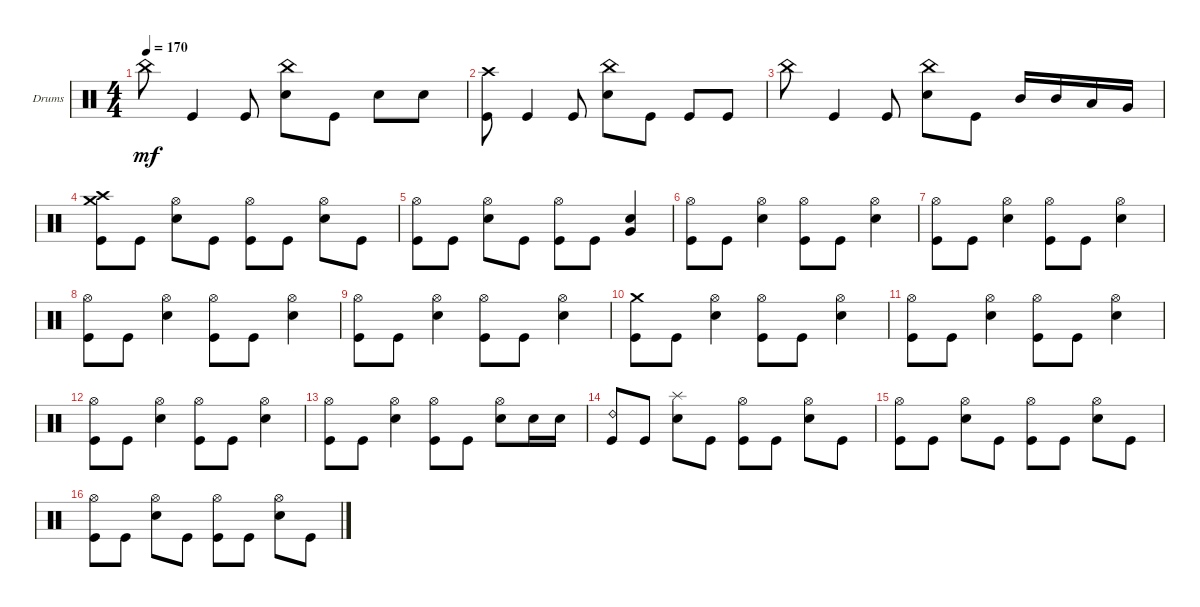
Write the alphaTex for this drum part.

\defaultSystemsLayout 4
\bracketExtendMode groupsimilarinstruments
\firstSystemTrackNameOrientation horizontal
\otherSystemsTrackNameOrientation horizontal
\track ("Drumkit" "Drums") {instrument percussion}
\staff {score}
\articulation defaults
\ts (4 4)
\tempo 170
\clef neutral
\ks c "China (hit)".8{dy mf} "Kick (hit)".4 "Kick (hit)".8
("Snare (hit) 2" "China (hit)").8 "Kick (hit)".8 "Snare (hit) 2".8 "Snare (hit) 2".8 |
("Kick (hit)" "Crash high (hit)").8 "Kick (hit)".4 "Kick (hit)".8 ("Snare (hit) 2" "China (hit)").8 "Kick (hit)".8 "Kick (hit)".8 "Kick (hit)".8 |
"China (hit)".8 "Kick (hit)".4 "Kick (hit)".8 ("Snare (hit) 2" "China (hit)").8 "Kick (hit)".8 "Mid Tom (hit)".16 "Mid Tom (hit)".16 "Low Tom (hit)".16 "Very Low Tom (hit)".16 |
("Kick (hit)" "Crash medium (hit)" "Crash high (hit)").8 "Kick (hit)".8 ("Snare (hit) 2" "Hi-Hat (open)").8 "Kick (hit)".8 ("Kick (hit)" "Hi-Hat (open)").8 "Kick (hit)".8 ("Snare (hit) 2" "Hi-Hat (open)").8 "Kick (hit)".8 |
("Kick (hit)" "Hi-Hat (open)").8 "Kick (hit)".8 ("Snare (hit) 2" "Hi-Hat (open)").8 "Kick (hit)".8 ("Kick (hit)" "Hi-Hat (open)").8 "Kick (hit)".8 ("Snare (hit) 2" "Very Low Tom (hit)").4 |
("Kick (hit)" "Hi-Hat (open)").8 "Kick (hit)".8 ("Snare (hit) 2" "Hi-Hat (open)").4 ("Kick (hit)" "Hi-Hat (open)").8 "Kick (hit)".8 ("Snare (hit) 2" "Hi-Hat (open)").4 |
("Kick (hit)" "Hi-Hat (open)").8 "Kick (hit)".8 ("Snare (hit) 2" "Hi-Hat (open)").4 ("Kick (hit)" "Hi-Hat (open)").8 "Kick (hit)".8 ("Snare (hit) 2" "Hi-Hat (open)").4 |
("Kick (hit)" "Hi-Hat (open)").8 "Kick (hit)".8 ("Snare (hit) 2" "Hi-Hat (open)").4 ("Kick (hit)" "Hi-Hat (open)").8 "Kick (hit)".8 ("Snare (hit) 2" "Hi-Hat (open)").4 |
("Kick (hit)" "Hi-Hat (open)").8 "Kick (hit)".8 ("Snare (hit) 2" "Hi-Hat (open)").4 ("Kick (hit)" "Hi-Hat (open)").8 "Kick (hit)".8 ("Snare (hit) 2" "Hi-Hat (open)").4 |
("Kick (hit)" "Crash medium (hit)").8 "Kick (hit)".8 ("Snare (hit) 2" "Hi-Hat (open)").4 ("Kick (hit)" "Hi-Hat (open)").8 "Kick (hit)".8 ("Snare (hit) 2" "Hi-Hat (open)").4 |
("Kick (hit)" "Hi-Hat (open)").8 "Kick (hit)".8 ("Snare (hit) 2" "Hi-Hat (open)").4 ("Kick (hit)" "Hi-Hat (open)").8 "Kick (hit)".8 ("Snare (hit) 2" "Hi-Hat (open)").4 |
("Kick (hit)" "Hi-Hat (open)").8 "Kick (hit)".8 ("Snare (hit) 2" "Hi-Hat (open)").4 ("Kick (hit)" "Hi-Hat (open)").8 "Kick (hit)".8 ("Snare (hit) 2" "Hi-Hat (open)").4 |
("Kick (hit)" "Hi-Hat (open)").8 "Kick (hit)".8 ("Snare (hit) 2" "Hi-Hat (open)").4 ("Kick (hit)" "Hi-Hat (open)").8 "Kick (hit)".8 ("Snare (hit) 2" "Hi-Hat (open)").8 "Snare (hit) 2".16 "Snare (hit) 2".16 |
("Kick (hit)" "Ride (bell) 2").8 "Kick (hit)".8 ("Snare (hit) 2" "Splash (hit)").8 "Kick (hit)".8 ("Kick (hit)" "Hi-Hat (open)").8 "Kick (hit)".8 ("Snare (hit) 2" "Hi-Hat (open)").8 "Kick (hit)".8 |
("Kick (hit)" "Hi-Hat (open)").8 "Kick (hit)".8 ("Snare (hit) 2" "Hi-Hat (open)").8 "Kick (hit)".8 ("Kick (hit)" "Hi-Hat (open)").8 "Kick (hit)".8 ("Snare (hit) 2" "Hi-Hat (open)").8 "Kick (hit)".8 |
("Kick (hit)" "Hi-Hat (open)").8 "Kick (hit)".8 ("Snare (hit) 2" "Hi-Hat (open)").8 "Kick (hit)".8 ("Kick (hit)" "Hi-Hat (open)").8 "Kick (hit)".8 ("Snare (hit) 2" "Hi-Hat (open)").8 "Kick (hit)".8
